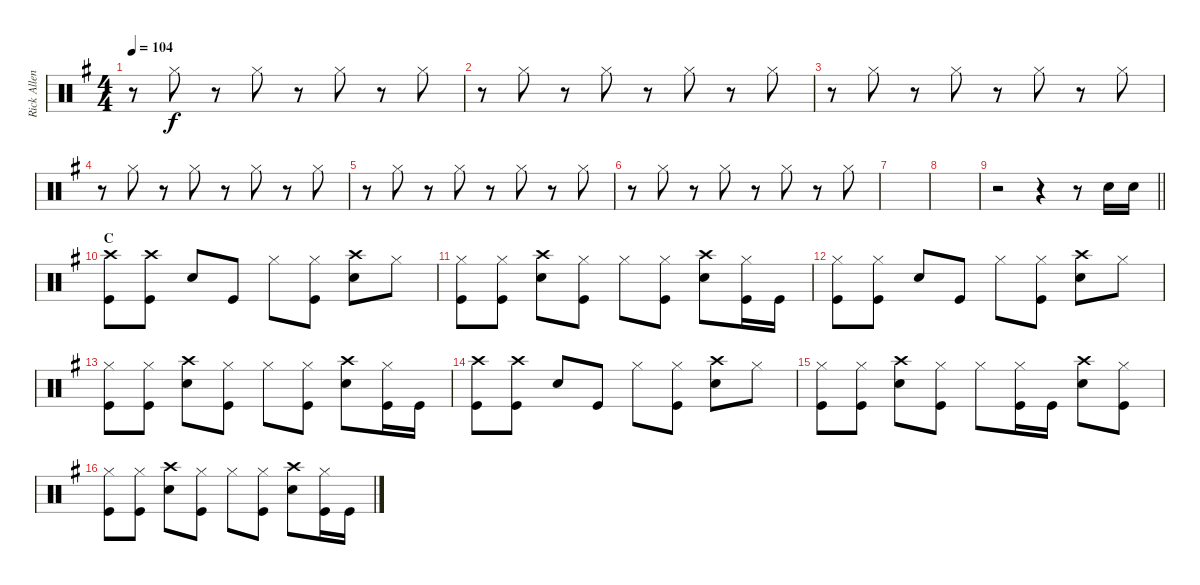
\track ("Rick Allen" "Rick Allen") {instrument percussion}
\staff {score}
\articulation defaults
\ts (4 4)
\tempo 104
\clef neutral
\ks eminor
r.8{dy f} "Hi-Hat (closed)".8 r.8 "Hi-Hat (closed)".8 r.8 "Hi-Hat (closed)".8 r.8 "Hi-Hat (closed)".8 |
r.8 "Hi-Hat (closed)".8 r.8 "Hi-Hat (closed)".8 r.8 "Hi-Hat (closed)".8 r.8 "Hi-Hat (closed)".8 |
r.8 "Hi-Hat (closed)".8 r.8 "Hi-Hat (closed)".8 r.8 "Hi-Hat (closed)".8 r.8 "Hi-Hat (closed)".8 |
r.8 "Hi-Hat (closed)".8 r.8 "Hi-Hat (closed)".8 r.8 "Hi-Hat (closed)".8 r.8 "Hi-Hat (closed)".8 |
r.8 "Hi-Hat (closed)".8 r.8 "Hi-Hat (closed)".8 r.8 "Hi-Hat (closed)".8 r.8 "Hi-Hat (closed)".8 |
r.8 "Hi-Hat (closed)".8 r.8 "Hi-Hat (closed)".8 r.8 "Hi-Hat (closed)".8 r.8 "Hi-Hat (closed)".8 |
|
|
\barLineRight lightlight
r.2 r.4 r.8 "Snare (hit) 2".16 "Snare (hit) 2".16 |
\section ("" "C")
("Crash high (hit)" "Kick (hit)").8 ("Crash high (hit)" "Kick (hit)").8 "Snare (hit) 2".8 "Kick (hit)".8 "Hi-Hat (closed)".8 ("Hi-Hat (closed)" "Kick (hit)").8 ("Crash high (hit)" "Snare (hit) 2").8 "Hi-Hat (closed)".8 |
("Hi-Hat (closed)" "Kick (hit)").8 ("Hi-Hat (closed)" "Kick (hit)").8 ("Crash high (hit)" "Snare (hit) 2").8 ("Hi-Hat (closed)" "Kick (hit)").8 "Hi-Hat (closed)".8 ("Hi-Hat (closed)" "Kick (hit)").8 ("Crash high (hit)" "Snare (hit) 2").8 ("Hi-Hat (closed)" "Kick (hit)").16 "Kick (hit)".16 |
("Hi-Hat (closed)" "Kick (hit)").8 ("Hi-Hat (closed)" "Kick (hit)").8 "Snare (hit) 2".8 "Kick (hit)".8 "Hi-Hat (closed)".8 ("Hi-Hat (closed)" "Kick (hit)").8 ("Crash high (hit)" "Snare (hit) 2").8 "Hi-Hat (closed)".8 |
("Hi-Hat (closed)" "Kick (hit)").8 ("Hi-Hat (closed)" "Kick (hit)").8 ("Crash high (hit)" "Snare (hit) 2").8 ("Hi-Hat (closed)" "Kick (hit)").8 "Hi-Hat (closed)".8 ("Hi-Hat (closed)" "Kick (hit)").8 ("Crash high (hit)" "Snare (hit) 2").8 ("Hi-Hat (closed)" "Kick (hit)").16 "Kick (hit)".16 |
("Crash high (hit)" "Kick (hit)").8 ("Crash high (hit)" "Kick (hit)").8 "Snare (hit) 2".8 "Kick (hit)".8 "Hi-Hat (closed)".8 ("Hi-Hat (closed)" "Kick (hit)").8 ("Crash high (hit)" "Snare (hit) 2").8 "Hi-Hat (closed)".8 |
("Hi-Hat (closed)" "Kick (hit)").8 ("Hi-Hat (closed)" "Kick (hit)").8 ("Crash high (hit)" "Snare (hit) 2").8 ("Hi-Hat (closed)" "Kick (hit)").8 "Hi-Hat (closed)".8 ("Hi-Hat (closed)" "Kick (hit)").16 "Kick (hit)".16 ("Crash high (hit)" "Snare (hit) 2").8 ("Hi-Hat (closed)" "Kick (hit)").8 |
("Hi-Hat (closed)" "Kick (hit)").8 ("Hi-Hat (closed)" "Kick (hit)").8 ("Crash high (hit)" "Snare (hit) 2").8 ("Hi-Hat (closed)" "Kick (hit)").8 "Hi-Hat (closed)".8 ("Hi-Hat (closed)" "Kick (hit)").8 ("Crash high (hit)" "Snare (hit) 2").8 ("Hi-Hat (closed)" "Kick (hit)").16 "Kick (hit)".16
